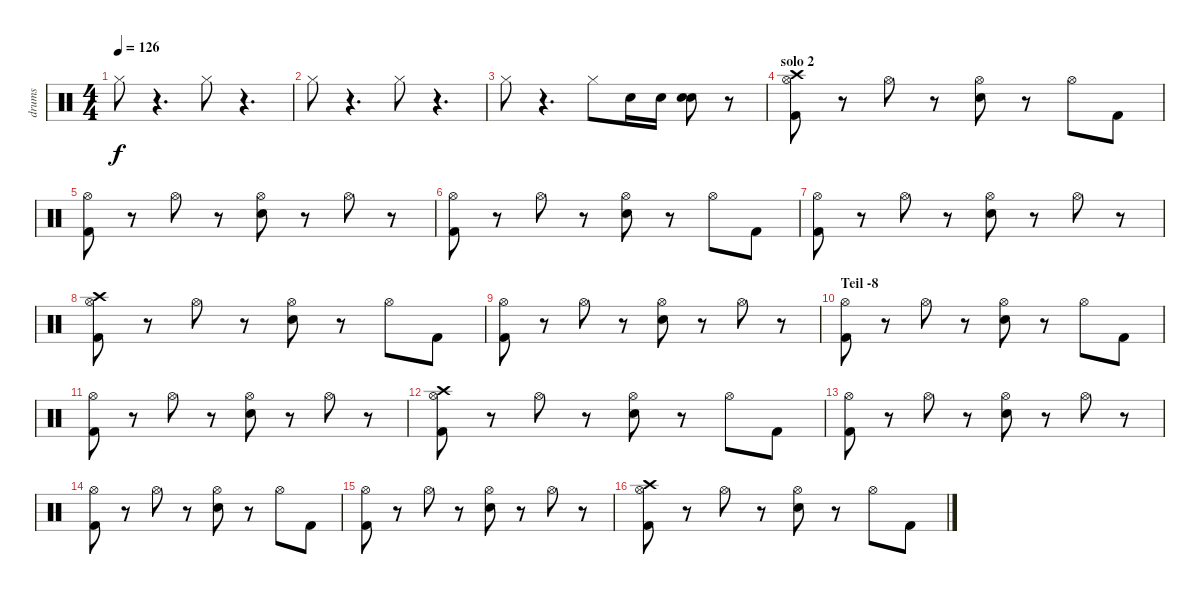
\track ("drums" "drums") {instrument percussion}
\staff {score}
\articulation defaults
\ts (4 4)
\tempo 126
\clef neutral
\ks c "Hi-Hat (closed)".8{dy f}
r.4{d} "Hi-Hat (closed)".8 r.4{d} |
"Hi-Hat (closed)".8 r.4{d} "Hi-Hat (closed)".8 r.4{d} |
"Hi-Hat (closed)".8 r.4{d} "Hi-Hat (closed)".8 "Electric Snare (hit)".16 "Electric Snare (hit)".16 ("Electric Snare (hit)" "Electric Snare (hit)").8 r.8 |
\section ("" "solo 2")
("Kick (hit) 2" "Hi-Hat (open)" "Crash high (hit)").8 r.8 "Hi-Hat (open)".8 r.8 ("Electric Snare (hit)" "Hi-Hat (open)").8 r.8 "Hi-Hat (open)".8 "Kick (hit) 2".8 |
("Kick (hit) 2" "Hi-Hat (open)").8 r.8 "Hi-Hat (open)".8 r.8 ("Electric Snare (hit)" "Hi-Hat (open)").8 r.8 "Hi-Hat (open)".8 r.8 |
("Kick (hit) 2" "Hi-Hat (open)").8 r.8 "Hi-Hat (open)".8 r.8 ("Electric Snare (hit)" "Hi-Hat (open)").8 r.8 "Hi-Hat (open)".8 "Kick (hit) 2".8 |
("Kick (hit) 2" "Hi-Hat (open)").8 r.8 "Hi-Hat (open)".8 r.8 ("Electric Snare (hit)" "Hi-Hat (open)").8 r.8 "Hi-Hat (open)".8 r.8 |
("Kick (hit) 2" "Hi-Hat (open)" "Crash high (hit)").8 r.8 "Hi-Hat (open)".8 r.8 ("Electric Snare (hit)" "Hi-Hat (open)").8 r.8 "Hi-Hat (open)".8 "Kick (hit) 2".8 |
("Kick (hit) 2" "Hi-Hat (open)").8 r.8 "Hi-Hat (open)".8 r.8 ("Electric Snare (hit)" "Hi-Hat (open)").8 r.8 "Hi-Hat (open)".8 r.8 |
\section ("" "Teil -8")
("Kick (hit) 2" "Hi-Hat (open)").8 r.8 "Hi-Hat (open)".8 r.8 ("Electric Snare (hit)" "Hi-Hat (open)").8 r.8 "Hi-Hat (open)".8 "Kick (hit) 2".8 |
("Kick (hit) 2" "Hi-Hat (open)").8 r.8 "Hi-Hat (open)".8 r.8 ("Electric Snare (hit)" "Hi-Hat (open)").8 r.8 "Hi-Hat (open)".8 r.8 |
("Kick (hit) 2" "Hi-Hat (open)" "Crash high (hit)").8 r.8 "Hi-Hat (open)".8 r.8 ("Electric Snare (hit)" "Hi-Hat (open)").8 r.8 "Hi-Hat (open)".8 "Kick (hit) 2".8 |
("Kick (hit) 2" "Hi-Hat (open)").8 r.8 "Hi-Hat (open)".8 r.8 ("Electric Snare (hit)" "Hi-Hat (open)").8 r.8 "Hi-Hat (open)".8 r.8 |
("Kick (hit) 2" "Hi-Hat (open)").8 r.8 "Hi-Hat (open)".8 r.8 ("Electric Snare (hit)" "Hi-Hat (open)").8 r.8 "Hi-Hat (open)".8 "Kick (hit) 2".8 |
("Kick (hit) 2" "Hi-Hat (open)").8 r.8 "Hi-Hat (open)".8 r.8 ("Electric Snare (hit)" "Hi-Hat (open)").8 r.8 "Hi-Hat (open)".8 r.8 |
("Kick (hit) 2" "Hi-Hat (open)" "Crash high (hit)").8 r.8 "Hi-Hat (open)".8 r.8 ("Electric Snare (hit)" "Hi-Hat (open)").8 r.8 "Hi-Hat (open)".8 "Kick (hit) 2".8
